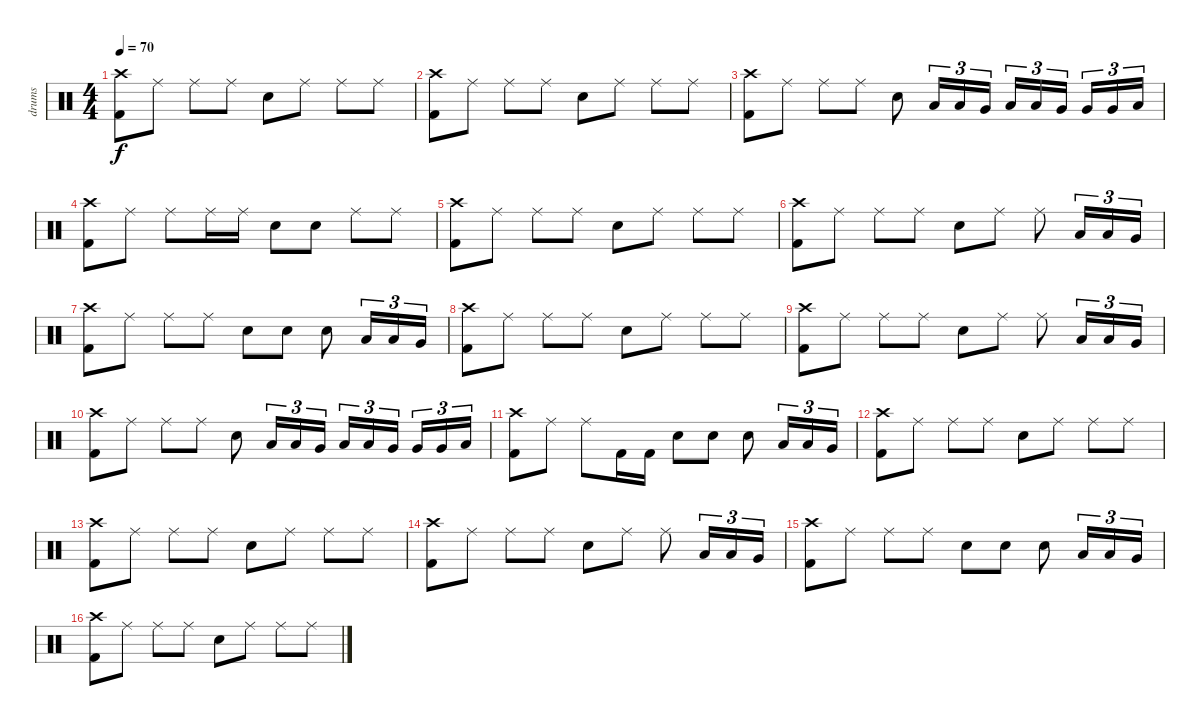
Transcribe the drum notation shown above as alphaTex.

\track ("drums" "drums") {instrument percussion}
\staff {score}
\articulation defaults
\ts (4 4)
\tempo 70
\clef neutral
\ks c
("Crash high (hit)" "Kick (hit) 2").8{dy f} "Ride (middle)".8 "Ride (middle)".8 "Ride (middle)".8 "Snare (hit) 2".8 "Ride (middle)".8 "Ride (middle)".8 "Ride (middle)".8 |
("Crash high (hit)" "Kick (hit) 2").8 "Ride (middle)".8 "Ride (middle)".8 "Ride (middle)".8 "Snare (hit) 2".8 "Ride (middle)".8 "Ride (middle)".8 "Ride (middle)".8 |
("Crash high (hit)" "Kick (hit) 2").8 "Ride (middle)".8 "Ride (middle)".8 "Ride (middle)".8 "Snare (hit) 2".8 "Low Tom (hit)".16{tu (3 2)} "Low Tom (hit)".16{tu (3 2)} "Very Low Tom (hit)".16{tu (3 2)} "Low Tom (hit)".16{tu (3 2)} "Low Tom (hit)".16{tu (3 2)} "Very Low Tom (hit)".16{tu (3 2)} "Very Low Tom (hit)".16{tu (3 2)} "Very Low Tom (hit)".16{tu (3 2)} "Low Floor Tom (hit)".16{tu (3 2)} |
("Crash high (hit)" "Kick (hit) 2").8 "Ride (middle)".8 "Ride (middle)".8 "Ride (middle)".16 "Ride (middle)".16 "Snare (hit) 2".8 "Snare (hit) 2".8 "Ride (middle)".8 "Ride (middle)".8 |
("Crash high (hit)" "Kick (hit) 2").8 "Ride (middle)".8 "Ride (middle)".8 "Ride (middle)".8 "Snare (hit) 2".8 "Ride (middle)".8 "Ride (middle)".8 "Ride (middle)".8 |
("Crash high (hit)" "Kick (hit) 2").8 "Ride (middle)".8 "Ride (middle)".8 "Ride (middle)".8 "Snare (hit) 2".8 "Ride (middle)".8 "Ride (middle)".8 "Low Tom (hit)".16{tu (3 2)} "Low Tom (hit)".16{tu (3 2)} "Very Low Tom (hit)".16{tu (3 2)} |
("Crash high (hit)" "Kick (hit) 2").8 "Ride (middle)".8 "Ride (middle)".8 "Ride (middle)".8 "Snare (hit) 2".8 "Snare (hit) 2".8 "Snare (hit) 2".8 "Low Tom (hit)".16{tu (3 2)} "Low Tom (hit)".16{tu (3 2)} "Very Low Tom (hit)".16{tu (3 2)} |
("Crash high (hit)" "Kick (hit) 2").8 "Ride (middle)".8 "Ride (middle)".8 "Ride (middle)".8 "Snare (hit) 2".8 "Ride (middle)".8 "Ride (middle)".8 "Ride (middle)".8 |
("Crash high (hit)" "Kick (hit) 2").8 "Ride (middle)".8 "Ride (middle)".8 "Ride (middle)".8 "Snare (hit) 2".8 "Ride (middle)".8 "Ride (middle)".8 "Low Tom (hit)".16{tu (3 2)} "Low Tom (hit)".16{tu (3 2)} "Very Low Tom (hit)".16{tu (3 2)} |
("Crash high (hit)" "Kick (hit) 2").8 "Ride (middle)".8 "Ride (middle)".8 "Ride (middle)".8 "Snare (hit) 2".8 "Low Tom (hit)".16{tu (3 2)} "Low Tom (hit)".16{tu (3 2)} "Very Low Tom (hit)".16{tu (3 2)} "Low Tom (hit)".16{tu (3 2)} "Low Tom (hit)".16{tu (3 2)} "Very Low Tom (hit)".16{tu (3 2)} "Very Low Tom (hit)".16{tu (3 2)} "Very Low Tom (hit)".16{tu (3 2)} "Low Floor Tom (hit)".16{tu (3 2)} |
("Crash high (hit)" "Kick (hit) 2").8 "Ride (middle)".8 "Ride (middle)".8 "Kick (hit) 2".16 "Kick (hit) 2".16 "Snare (hit) 2".8 "Snare (hit) 2".8 "Snare (hit) 2".8 "Low Tom (hit)".16{tu (3 2)} "Low Tom (hit)".16{tu (3 2)} "Very Low Tom (hit)".16{tu (3 2)} |
("Crash high (hit)" "Kick (hit) 2").8 "Ride (middle)".8 "Ride (middle)".8 "Ride (middle)".8 "Snare (hit) 2".8 "Ride (middle)".8 "Ride (middle)".8 "Ride (middle)".8 |
("Crash high (hit)" "Kick (hit) 2").8 "Ride (middle)".8 "Ride (middle)".8 "Ride (middle)".8 "Snare (hit) 2".8 "Ride (middle)".8 "Ride (middle)".8 "Ride (middle)".8 |
("Crash high (hit)" "Kick (hit) 2").8 "Ride (middle)".8 "Ride (middle)".8 "Ride (middle)".8 "Snare (hit) 2".8 "Ride (middle)".8 "Ride (middle)".8 "Low Tom (hit)".16{tu (3 2)} "Low Tom (hit)".16{tu (3 2)} "Very Low Tom (hit)".16{tu (3 2)} |
("Crash high (hit)" "Kick (hit) 2").8 "Ride (middle)".8 "Ride (middle)".8 "Ride (middle)".8 "Snare (hit) 2".8 "Snare (hit) 2".8 "Snare (hit) 2".8 "Low Tom (hit)".16{tu (3 2)} "Low Tom (hit)".16{tu (3 2)} "Very Low Tom (hit)".16{tu (3 2)} |
("Crash high (hit)" "Kick (hit) 2").8 "Ride (middle)".8 "Ride (middle)".8 "Ride (middle)".8 "Snare (hit) 2".8 "Ride (middle)".8 "Ride (middle)".8 "Ride (middle)".8
